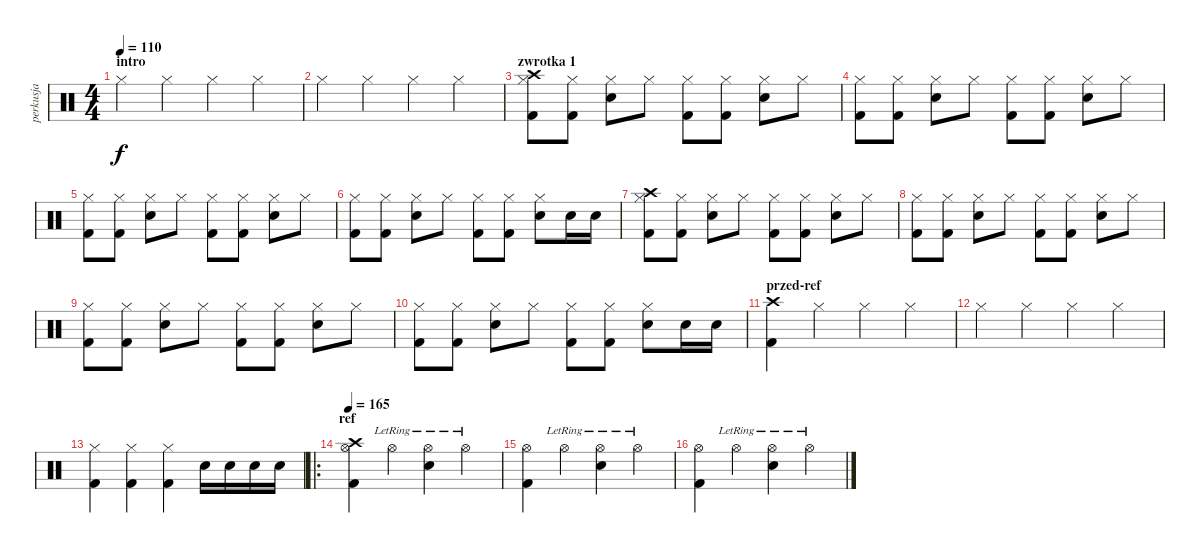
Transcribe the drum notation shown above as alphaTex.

\track ("perkusja" "perkusja") {instrument percussion}
\staff {score}
\articulation defaults
\ts (4 4)
\section ("" "intro")
\tempo 110
\clef neutral
\ks c "Hi-Hat (closed)".4{dy f} "Hi-Hat (closed)".4 "Hi-Hat (closed)".4 "Hi-Hat (closed)".4
|
"Hi-Hat (closed)".4 "Hi-Hat (closed)".4 "Hi-Hat (closed)".4 "Hi-Hat (closed)".4 |
\section ("" "zwrotka 1")
("Hi-Hat (closed)" "Kick (hit) 2" "Crash high (hit)").8 ("Hi-Hat (closed)" "Kick (hit) 2").8 ("Hi-Hat (closed)" "Electric Snare (hit)").8 "Hi-Hat (closed)".8 ("Hi-Hat (closed)" "Kick (hit) 2").8 ("Hi-Hat (closed)" "Kick (hit) 2").8 ("Hi-Hat (closed)" "Electric Snare (hit)").8 "Hi-Hat (closed)".8 |
("Hi-Hat (closed)" "Kick (hit) 2").8 ("Hi-Hat (closed)" "Kick (hit) 2").8 ("Hi-Hat (closed)" "Electric Snare (hit)").8 "Hi-Hat (closed)".8 ("Hi-Hat (closed)" "Kick (hit) 2").8 ("Hi-Hat (closed)" "Kick (hit) 2").8 ("Hi-Hat (closed)" "Electric Snare (hit)").8 "Hi-Hat (closed)".8 |
("Hi-Hat (closed)" "Kick (hit) 2").8 ("Hi-Hat (closed)" "Kick (hit) 2").8 ("Hi-Hat (closed)" "Electric Snare (hit)").8 "Hi-Hat (closed)".8 ("Hi-Hat (closed)" "Kick (hit) 2").8 ("Hi-Hat (closed)" "Kick (hit) 2").8 ("Hi-Hat (closed)" "Electric Snare (hit)").8 "Hi-Hat (closed)".8 |
("Hi-Hat (closed)" "Kick (hit) 2").8 ("Hi-Hat (closed)" "Kick (hit) 2").8 ("Hi-Hat (closed)" "Electric Snare (hit)").8 "Hi-Hat (closed)".8 ("Hi-Hat (closed)" "Kick (hit) 2").8 ("Hi-Hat (closed)" "Kick (hit) 2").8 ("Hi-Hat (closed)" "Electric Snare (hit)").8 "Electric Snare (hit)".16 "Electric Snare (hit)".16 |
("Hi-Hat (closed)" "Kick (hit) 2" "Crash high (hit)").8 ("Hi-Hat (closed)" "Kick (hit) 2").8 ("Hi-Hat (closed)" "Electric Snare (hit)").8 "Hi-Hat (closed)".8 ("Hi-Hat (closed)" "Kick (hit) 2").8 ("Hi-Hat (closed)" "Kick (hit) 2").8 ("Hi-Hat (closed)" "Electric Snare (hit)").8 "Hi-Hat (closed)".8 |
("Hi-Hat (closed)" "Kick (hit) 2").8 ("Hi-Hat (closed)" "Kick (hit) 2").8 ("Hi-Hat (closed)" "Electric Snare (hit)").8 "Hi-Hat (closed)".8 ("Hi-Hat (closed)" "Kick (hit) 2").8 ("Hi-Hat (closed)" "Kick (hit) 2").8 ("Hi-Hat (closed)" "Electric Snare (hit)").8 "Hi-Hat (closed)".8 |
("Hi-Hat (closed)" "Kick (hit) 2").8 ("Hi-Hat (closed)" "Kick (hit) 2").8 ("Hi-Hat (closed)" "Electric Snare (hit)").8 "Hi-Hat (closed)".8 ("Hi-Hat (closed)" "Kick (hit) 2").8 ("Hi-Hat (closed)" "Kick (hit) 2").8 ("Hi-Hat (closed)" "Electric Snare (hit)").8 "Hi-Hat (closed)".8 |
("Hi-Hat (closed)" "Kick (hit) 2").8 ("Hi-Hat (closed)" "Kick (hit) 2").8 ("Hi-Hat (closed)" "Electric Snare (hit)").8 "Hi-Hat (closed)".8 ("Hi-Hat (closed)" "Kick (hit) 2").8 ("Hi-Hat (closed)" "Kick (hit) 2").8 ("Hi-Hat (closed)" "Electric Snare (hit)").8 "Electric Snare (hit)".16 "Electric Snare (hit)".16 |
\section ("" "przed-ref")
("Crash high (hit)" "Kick (hit) 2").4 "Hi-Hat (closed)".4 "Hi-Hat (closed)".4 "Hi-Hat (closed)".4 |
"Hi-Hat (closed)".4 "Hi-Hat (closed)".4 "Hi-Hat (closed)".4 "Hi-Hat (closed)".4 |
("Hi-Hat (closed)" "Kick (hit) 2").4 ("Hi-Hat (closed)" "Kick (hit) 2").4 ("Hi-Hat (closed)" "Kick (hit) 2").4 "Electric Snare (hit)".16 "Electric Snare (hit)".16 "Electric Snare (hit)".16 "Electric Snare (hit)".16 |
\ro
\section ("" "ref")
\tempo 165
("Hi-Hat (open)" "Kick (hit) 2" "Crash high (hit)").4 "Hi-Hat (open)"{lr}.4 ("Hi-Hat (open)"{lr} "Electric Snare (hit)").4 "Hi-Hat (open)"{lr}.4 |
("Hi-Hat (open)" "Kick (hit) 2").4 "Hi-Hat (open)"{lr}.4 ("Hi-Hat (open)"{lr} "Electric Snare (hit)").4 "Hi-Hat (open)"{lr}.4 |
("Hi-Hat (open)" "Kick (hit) 2").4 "Hi-Hat (open)"{lr}.4 ("Hi-Hat (open)"{lr} "Electric Snare (hit)").4 "Hi-Hat (open)"{lr}.4
